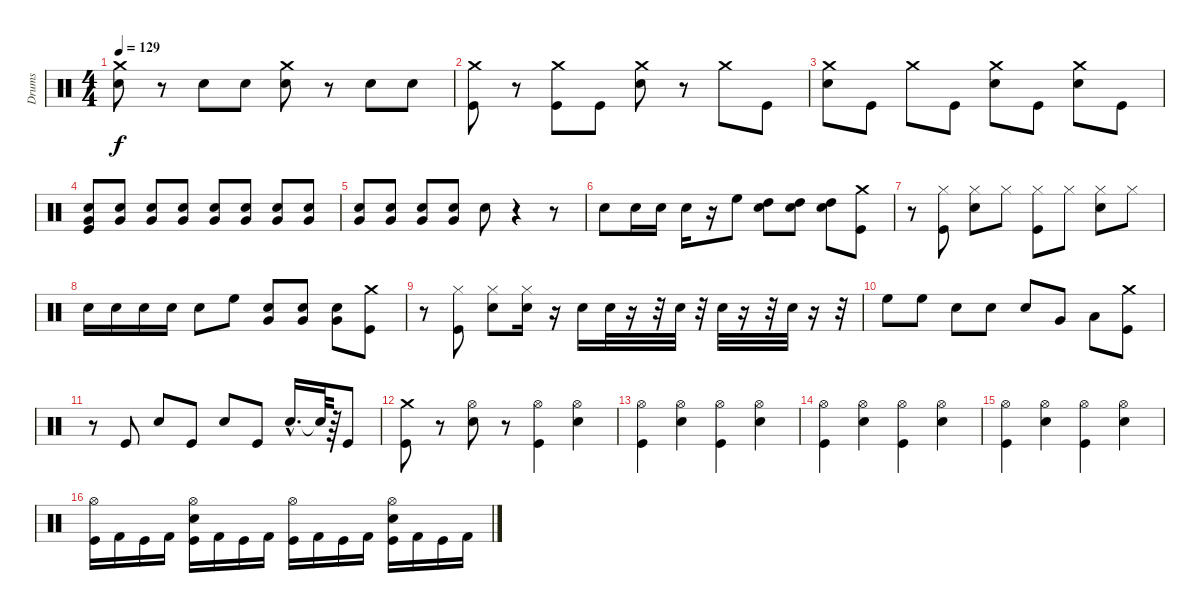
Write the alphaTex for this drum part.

\track ("Drums" "Drums") {instrument percussion}
\staff {score}
\articulation defaults
\ts (4 4)
\tempo 129
\clef neutral
\ks c
("Crash medium (hit)" "Snare (hit) 2").8{dy f} r.8 "Snare (hit) 2".8 "Snare (hit) 2".8 ("Crash medium (hit)" "Snare (hit) 2").8 r.8 "Snare (hit) 2".8 "Snare (hit) 2".8 |
("Crash medium (hit)" "Kick (hit)").8 r.8 ("Crash medium (hit)" "Kick (hit)").8 "Kick (hit)".8 ("Crash medium (hit)" "Snare (hit) 2").8 r.8 "Crash medium (hit)".8 "Kick (hit)".8 |
("Crash medium (hit)" "Snare (hit) 2").8 "Kick (hit)".8 "Crash medium (hit)".8 "Kick (hit)".8 ("Crash medium (hit)" "Snare (hit) 2").8 "Kick (hit)".8 ("Crash medium (hit)" "Snare (hit) 2").8 "Kick (hit)".8 |
("Kick (hit)" "Very Low Tom (hit)" "Snare (hit) 2").8 ("Very Low Tom (hit)" "Snare (hit) 2").8 ("Very Low Tom (hit)" "Snare (hit) 2").8 ("Very Low Tom (hit)" "Snare (hit) 2").8 ("Very Low Tom (hit)" "Snare (hit) 2").8 ("Very Low Tom (hit)" "Snare (hit) 2").8 ("Very Low Tom (hit)" "Snare (hit) 2").8 ("Very Low Tom (hit)" "Snare (hit) 2").8 |
("Very Low Tom (hit)" "Snare (hit) 2").8 ("Very Low Tom (hit)" "Snare (hit) 2").8 ("Very Low Tom (hit)" "Snare (hit) 2").8 ("Very Low Tom (hit)" "Snare (hit) 2").8 "Snare (hit) 2".8 r.4 r.8 |
"Snare (hit) 2".8 "Snare (hit) 2".16 "Snare (hit) 2".16 "Snare (hit) 2".16 r.16 "High Floor Tom (hit)".8 ("High Tom (hit)" "Snare (hit) 2").8 ("High Tom (hit)" "Snare (hit) 2").8 ("High Tom (hit)" "Snare (hit) 2").8 ("Crash medium (hit)" "Kick (hit)").8 |
r.8 ("Hi-Hat (closed)" "Kick (hit)").8 ("Hi-Hat (closed)" "Snare (hit) 2").8 "Hi-Hat (closed)".8 ("Kick (hit)" "Hi-Hat (closed)").8 "Hi-Hat (closed)".8 ("Snare (hit) 2" "Hi-Hat (closed)").8 "Hi-Hat (closed)".8 |
"Snare (hit) 2".16 "Snare (hit) 2".16 "Snare (hit) 2".16 "Snare (hit) 2".16 "Snare (hit) 2".8 "High Floor Tom (hit)".8 ("Very Low Tom (hit)" "Snare (hit) 2").8 ("Snare (hit) 2" "Very Low Tom (hit)").8 ("Snare (hit) 2" "Very Low Tom (hit)").8 ("Crash medium (hit)" "Kick (hit)").8 |
r.8 ("Hi-Hat (closed)" "Kick (hit)").8 ("Hi-Hat (closed)" "Snare (hit) 2").8 ("Hi-Hat (closed)" "Snare (hit) 2").16 r.16 "Snare (hit) 2".16 "Snare (hit) 2".32 r.16 r.32 "Snare (hit) 2".32 r.32 "Snare (hit) 2".32 r.16 r.32 "Snare (hit) 2".32 r.16 r.32 |
"High Floor Tom (hit)".8 "High Floor Tom (hit)".8 "Snare (hit) 2".8 "Snare (hit) 2".8 "Snare (hit) 2".8 "Very Low Tom (hit)".8 "Low Floor Tom (hit)".8 ("Crash medium (hit)" "Kick (hit)").8 |
r.8 "Kick (hit)".8 "Snare (hit) 2".8 "Kick (hit)".8 "Snare (hit) 2".8 "Kick (hit)".8 "Snare (hit) 2"{hac}.16{d} "Snare (hit)"{t}.64 r.64 "Kick (hit)".8 |
("Crash medium (hit)" "Kick (hit)").8 r.8 ("Snare (hit) 2" "Hi-Hat (open)").8 r.8 ("Kick (hit)" "Hi-Hat (open)").4 ("Snare (hit) 2" "Hi-Hat (open)").4 |
("Kick (hit)" "Hi-Hat (open)").4 ("Snare (hit) 2" "Hi-Hat (open)").4 ("Kick (hit)" "Hi-Hat (open)").4 ("Snare (hit) 2" "Hi-Hat (open)").4 |
("Kick (hit)" "Hi-Hat (open)").4 ("Snare (hit) 2" "Hi-Hat (open)").4 ("Kick (hit)" "Hi-Hat (open)").4 ("Snare (hit) 2" "Hi-Hat (open)").4 |
("Kick (hit)" "Hi-Hat (open)").4 ("Snare (hit) 2" "Hi-Hat (open)").4 ("Kick (hit)" "Hi-Hat (open)").4 ("Snare (hit) 2" "Hi-Hat (open)").4 |
("Kick (hit)" "Hi-Hat (open)").16 "Kick (hit) 2".16 "Kick (hit)".16 "Kick (hit) 2".16 ("Kick (hit)" "Snare (hit) 2" "Hi-Hat (open)").16 "Kick (hit) 2".16 "Kick (hit)".16 "Kick (hit) 2".16 ("Kick (hit)" "Hi-Hat (open)").16 "Kick (hit) 2".16 "Kick (hit)".16 "Kick (hit) 2".16 ("Kick (hit)" "Snare (hit) 2" "Hi-Hat (open)").16 "Kick (hit) 2".16 "Kick (hit)".16 "Kick (hit) 2".16
